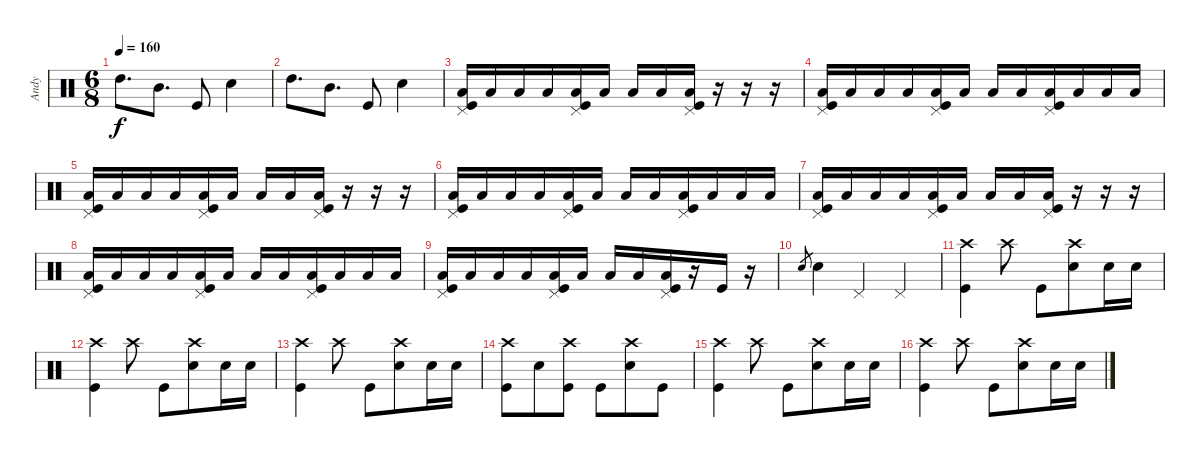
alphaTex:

\track ("Andy" "Andy") {instrument percussion}
\staff {score}
\articulation defaults
\ts (6 8)
\tempo 160
\clef neutral
\ks c "High Tom (hit)".8{d dy f} "Mid Tom (hit)".8{d} "Kick (hit)".8 "Snare (hit) 2".4
|
"High Tom (hit)".8{d} "Mid Tom (hit)".8{d} "Kick (hit)".8 "Snare (hit) 2".4 |
("Low Floor Tom (hit)" "Kick (hit)" "Pedal Hi-Hat (hit)").16 "Low Floor Tom (hit)".16 "Low Floor Tom (hit)".16 "Low Floor Tom (hit)".16 ("Low Floor Tom (hit)" "Kick (hit)" "Pedal Hi-Hat (hit)").16 "Low Floor Tom (hit)".16 "Low Floor Tom (hit)".16 "Low Floor Tom (hit)".16 ("Kick (hit)" "Low Floor Tom (hit)" "Pedal Hi-Hat (hit)").16 r.16 r.16 r.16 |
("Low Floor Tom (hit)" "Kick (hit)" "Pedal Hi-Hat (hit)").16 "Low Floor Tom (hit)".16 "Low Floor Tom (hit)".16 "Low Floor Tom (hit)".16 ("Low Floor Tom (hit)" "Kick (hit)" "Pedal Hi-Hat (hit)").16 "Low Floor Tom (hit)".16 "Low Floor Tom (hit)".16 "Low Floor Tom (hit)".16 ("Kick (hit)" "Low Floor Tom (hit)" "Pedal Hi-Hat (hit)").16 "Low Floor Tom (hit)".16 "Low Floor Tom (hit)".16 "Low Floor Tom (hit)".16 |
("Low Floor Tom (hit)" "Kick (hit)" "Pedal Hi-Hat (hit)").16 "Low Floor Tom (hit)".16 "Low Floor Tom (hit)".16 "Low Floor Tom (hit)".16 ("Low Floor Tom (hit)" "Kick (hit)" "Pedal Hi-Hat (hit)").16 "Low Floor Tom (hit)".16 "Low Floor Tom (hit)".16 "Low Floor Tom (hit)".16 ("Kick (hit)" "Low Floor Tom (hit)" "Pedal Hi-Hat (hit)").16 r.16 r.16 r.16 |
("Low Floor Tom (hit)" "Kick (hit)" "Pedal Hi-Hat (hit)").16 "Low Floor Tom (hit)".16 "Low Floor Tom (hit)".16 "Low Floor Tom (hit)".16 ("Low Floor Tom (hit)" "Kick (hit)" "Pedal Hi-Hat (hit)").16 "Low Floor Tom (hit)".16 "Low Floor Tom (hit)".16 "Low Floor Tom (hit)".16 ("Kick (hit)" "Low Floor Tom (hit)" "Pedal Hi-Hat (hit)").16 "Low Floor Tom (hit)".16 "Low Floor Tom (hit)".16 "Low Floor Tom (hit)".16 |
("Low Floor Tom (hit)" "Kick (hit)" "Pedal Hi-Hat (hit)").16 "Low Floor Tom (hit)".16 "Low Floor Tom (hit)".16 "Low Floor Tom (hit)".16 ("Low Floor Tom (hit)" "Kick (hit)" "Pedal Hi-Hat (hit)").16 "Low Floor Tom (hit)".16 "Low Floor Tom (hit)".16 "Low Floor Tom (hit)".16 ("Kick (hit)" "Low Floor Tom (hit)" "Pedal Hi-Hat (hit)").16 r.16 r.16 r.16 |
("Low Floor Tom (hit)" "Kick (hit)" "Pedal Hi-Hat (hit)").16 "Low Floor Tom (hit)".16 "Low Floor Tom (hit)".16 "Low Floor Tom (hit)".16 ("Low Floor Tom (hit)" "Kick (hit)" "Pedal Hi-Hat (hit)").16 "Low Floor Tom (hit)".16 "Low Floor Tom (hit)".16 "Low Floor Tom (hit)".16 ("Kick (hit)" "Low Floor Tom (hit)" "Pedal Hi-Hat (hit)").16 "Low Floor Tom (hit)".16 "Low Floor Tom (hit)".16 "Low Floor Tom (hit)".16 |
("Low Floor Tom (hit)" "Kick (hit)" "Pedal Hi-Hat (hit)").16 "Low Floor Tom (hit)".16 "Low Floor Tom (hit)".16 "Low Floor Tom (hit)".16 ("Low Floor Tom (hit)" "Kick (hit)" "Pedal Hi-Hat (hit)").16 "Low Floor Tom (hit)".16 "Low Floor Tom (hit)".16 "Low Floor Tom (hit)".16 ("Kick (hit)" "Low Floor Tom (hit)" "Pedal Hi-Hat (hit)").16 r.16 "Kick (hit)".16 r.16 |
"Snare (hit) 2".8{gr} "Snare (hit) 2".4 "Pedal Hi-Hat (hit)".4 "Pedal Hi-Hat (hit)".4 |
("Kick (hit)" "Crash high (hit)").4 "Crash high (hit)".8 "Kick (hit)".8 ("Snare (hit) 2" "Crash high (hit)").8 "Snare (hit) 2".16 "Snare (hit) 2".16 |
("Kick (hit)" "Crash high (hit)").4 "Crash high (hit)".8 "Kick (hit)".8 ("Snare (hit) 2" "Crash high (hit)").8 "Snare (hit) 2".16 "Snare (hit) 2".16 |
("Kick (hit)" "Crash high (hit)").4 "Crash high (hit)".8 "Kick (hit)".8 ("Snare (hit) 2" "Crash high (hit)").8 "Snare (hit) 2".16 "Snare (hit) 2".16 |
("Kick (hit)" "Crash high (hit)").8 "Snare (hit) 2".8 ("Kick (hit)" "Crash high (hit)").8 "Kick (hit)".8 ("Snare (hit) 2" "Crash high (hit)").8 "Kick (hit)".8 |
("Kick (hit)" "Crash high (hit)").4 "Crash high (hit)".8 "Kick (hit)".8 ("Snare (hit) 2" "Crash high (hit)").8 "Snare (hit) 2".16 "Snare (hit) 2".16 |
("Kick (hit)" "Crash high (hit)").4 "Crash high (hit)".8 "Kick (hit)".8 ("Snare (hit) 2" "Crash high (hit)").8 "Snare (hit) 2".16 "Snare (hit) 2".16
